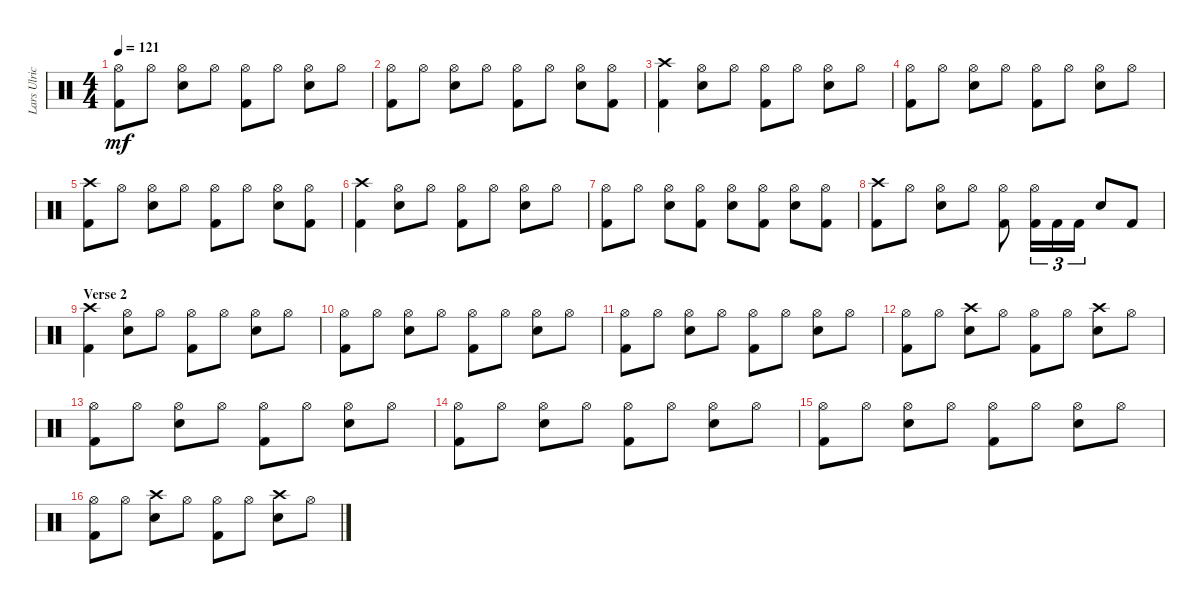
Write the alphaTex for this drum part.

\track ("Lars Ulrich" "Lars Ulric") {instrument percussion}
\staff {score}
\articulation defaults
\ts (4 4)
\tempo 121
\clef neutral
\ks c
("Hi-Hat (open)" "Kick (hit) 2").8{dy mf} "Hi-Hat (open)".8 ("Hi-Hat (open)" "Snare (hit) 2").8 "Hi-Hat (open)".8 ("Hi-Hat (open)" "Kick (hit) 2").8 "Hi-Hat (open)".8 ("Hi-Hat (open)" "Snare (hit) 2").8 "Hi-Hat (open)".8 |
("Hi-Hat (open)" "Kick (hit) 2").8 "Hi-Hat (open)".8 ("Hi-Hat (open)" "Snare (hit) 2").8 "Hi-Hat (open)".8 ("Hi-Hat (open)" "Kick (hit) 2").8 "Hi-Hat (open)".8 ("Hi-Hat (open)" "Snare (hit) 2").8 ("Hi-Hat (open)" "Kick (hit) 2").8 |
("Crash high (hit)" "Kick (hit) 2").4 ("Hi-Hat (open)" "Snare (hit) 2").8 "Hi-Hat (open)".8 ("Hi-Hat (open)" "Kick (hit) 2").8 "Hi-Hat (open)".8 ("Hi-Hat (open)" "Snare (hit) 2").8 "Hi-Hat (open)".8 |
("Hi-Hat (open)" "Kick (hit) 2").8 "Hi-Hat (open)".8 ("Hi-Hat (open)" "Snare (hit) 2").8 "Hi-Hat (open)".8 ("Hi-Hat (open)" "Kick (hit) 2").8 "Hi-Hat (open)".8 ("Hi-Hat (open)" "Snare (hit) 2").8 "Hi-Hat (open)".8 |
("Kick (hit) 2" "Crash high (hit)").8 "Hi-Hat (open)".8 ("Hi-Hat (open)" "Snare (hit) 2").8 "Hi-Hat (open)".8 ("Hi-Hat (open)" "Kick (hit) 2").8 "Hi-Hat (open)".8 ("Hi-Hat (open)" "Snare (hit) 2").8 ("Hi-Hat (open)" "Kick (hit) 2").8 |
("Crash high (hit)" "Kick (hit) 2").4 ("Hi-Hat (open)" "Snare (hit) 2").8 "Hi-Hat (open)".8 ("Hi-Hat (open)" "Kick (hit) 2").8 "Hi-Hat (open)".8 ("Hi-Hat (open)" "Snare (hit) 2").8 "Hi-Hat (open)".8 |
("Hi-Hat (open)" "Kick (hit) 2").8 "Hi-Hat (open)".8 ("Hi-Hat (open)" "Snare (hit) 2").8 ("Hi-Hat (open)" "Kick (hit) 2").8 ("Hi-Hat (open)" "Snare (hit) 2").8 ("Hi-Hat (open)" "Kick (hit) 2").8 ("Hi-Hat (open)" "Snare (hit) 2").8 ("Hi-Hat (open)" "Kick (hit) 2").8 |
("Kick (hit) 2" "Crash high (hit)").8 "Hi-Hat (open)".8 ("Hi-Hat (open)" "Snare (hit) 2").8 "Hi-Hat (open)".8 ("Hi-Hat (open)" "Kick (hit) 2").8 ("Hi-Hat (open)" "Kick (hit) 2").16{tu (3 2)} "Kick (hit) 2".16{tu (3 2)} "Kick (hit) 2".16{tu (3 2)} "Snare (hit) 2".8 "Kick (hit) 2".8 |
\section ("" "Verse 2")
("Crash high (hit)" "Kick (hit) 2").4 ("Hi-Hat (open)" "Snare (hit) 2").8 "Hi-Hat (open)".8 ("Hi-Hat (open)" "Kick (hit) 2").8 "Hi-Hat (open)".8 ("Hi-Hat (open)" "Snare (hit) 2").8 "Hi-Hat (open)".8 |
("Hi-Hat (open)" "Kick (hit) 2").8 "Hi-Hat (open)".8 ("Hi-Hat (open)" "Snare (hit) 2").8 "Hi-Hat (open)".8 ("Hi-Hat (open)" "Kick (hit) 2").8 "Hi-Hat (open)".8 ("Hi-Hat (open)" "Snare (hit) 2").8 "Hi-Hat (open)".8 |
("Hi-Hat (open)" "Kick (hit) 2").8 "Hi-Hat (open)".8 ("Hi-Hat (open)" "Snare (hit) 2").8 "Hi-Hat (open)".8 ("Hi-Hat (open)" "Kick (hit) 2").8 "Hi-Hat (open)".8 ("Hi-Hat (open)" "Snare (hit) 2").8 "Hi-Hat (open)".8 |
("Hi-Hat (open)" "Kick (hit) 2").8 "Hi-Hat (open)".8 ("Snare (hit) 2" "Crash high (hit)").8 "Hi-Hat (open)".8 ("Hi-Hat (open)" "Kick (hit) 2").8 "Hi-Hat (open)".8 ("Snare (hit) 2" "Crash high (hit)").8 "Hi-Hat (open)".8 |
("Hi-Hat (open)" "Kick (hit) 2").8 "Hi-Hat (open)".8 ("Hi-Hat (open)" "Snare (hit) 2").8 "Hi-Hat (open)".8 ("Hi-Hat (open)" "Kick (hit) 2").8 "Hi-Hat (open)".8 ("Hi-Hat (open)" "Snare (hit) 2").8 "Hi-Hat (open)".8 |
("Hi-Hat (open)" "Kick (hit) 2").8 "Hi-Hat (open)".8 ("Hi-Hat (open)" "Snare (hit) 2").8 "Hi-Hat (open)".8 ("Hi-Hat (open)" "Kick (hit) 2").8 "Hi-Hat (open)".8 ("Hi-Hat (open)" "Snare (hit) 2").8 "Hi-Hat (open)".8 |
("Hi-Hat (open)" "Kick (hit) 2").8 "Hi-Hat (open)".8 ("Hi-Hat (open)" "Snare (hit) 2").8 "Hi-Hat (open)".8 ("Hi-Hat (open)" "Kick (hit) 2").8 "Hi-Hat (open)".8 ("Hi-Hat (open)" "Snare (hit) 2").8 "Hi-Hat (open)".8 |
("Hi-Hat (open)" "Kick (hit) 2").8 "Hi-Hat (open)".8 ("Snare (hit) 2" "Crash high (hit)").8 "Hi-Hat (open)".8 ("Hi-Hat (open)" "Kick (hit) 2").8 "Hi-Hat (open)".8 ("Snare (hit) 2" "Crash high (hit)").8 "Hi-Hat (open)".8
